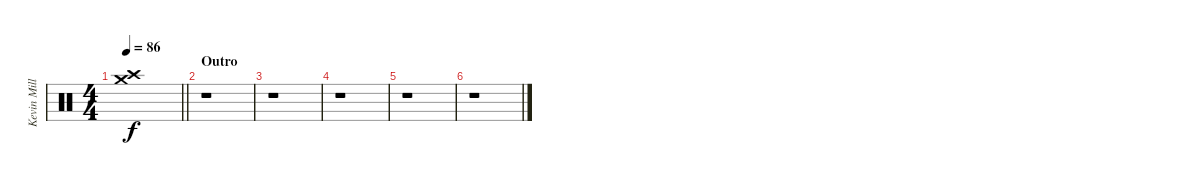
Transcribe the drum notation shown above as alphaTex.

\track ("Kevin Miller (Drums)" "Kevin Mill") {instrument percussion}
\staff {score}
\articulation defaults
\ts (4 4)
\tempo 86
\clef neutral
\barLineRight lightlight
\ks c
("Crash medium (hit)" "Crash high (hit)").1{dy f} |
\section ("" "Outro")
r.1 |
r.1 |
r.1 |
r.1 |
r.1
